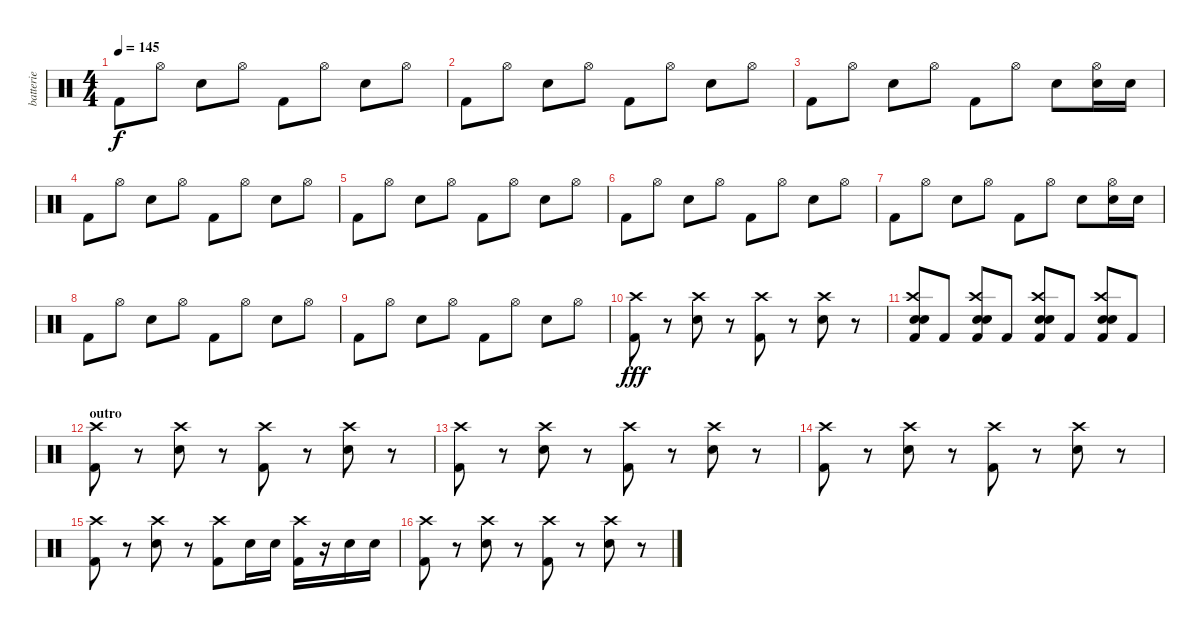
\track ("batterie" "batterie") {instrument percussion}
\staff {score}
\articulation defaults
\ts (4 4)
\tempo 145
\clef neutral
\ks c "Kick (hit) 2".8{dy f} "Hi-Hat (open)".8 "Electric Snare (hit)".8 "Hi-Hat (open)".8 "Kick (hit) 2".8 "Hi-Hat (open)".8 "Electric Snare (hit)".8 "Hi-Hat (open)".8
|
"Kick (hit) 2".8 "Hi-Hat (open)".8 "Electric Snare (hit)".8 "Hi-Hat (open)".8 "Kick (hit) 2".8 "Hi-Hat (open)".8 "Electric Snare (hit)".8 "Hi-Hat (open)".8 |
"Kick (hit) 2".8 "Hi-Hat (open)".8 "Electric Snare (hit)".8 "Hi-Hat (open)".8 "Kick (hit) 2".8 "Hi-Hat (open)".8 "Electric Snare (hit)".8 ("Hi-Hat (open)" "Electric Snare (hit)").16 "Electric Snare (hit)".16 |
"Kick (hit) 2".8 "Hi-Hat (open)".8 "Electric Snare (hit)".8 "Hi-Hat (open)".8 "Kick (hit) 2".8 "Hi-Hat (open)".8 "Electric Snare (hit)".8 "Hi-Hat (open)".8 |
"Kick (hit) 2".8 "Hi-Hat (open)".8 "Electric Snare (hit)".8 "Hi-Hat (open)".8 "Kick (hit) 2".8 "Hi-Hat (open)".8 "Electric Snare (hit)".8 "Hi-Hat (open)".8 |
"Kick (hit) 2".8 "Hi-Hat (open)".8 "Electric Snare (hit)".8 "Hi-Hat (open)".8 "Kick (hit) 2".8 "Hi-Hat (open)".8 "Electric Snare (hit)".8 "Hi-Hat (open)".8 |
"Kick (hit) 2".8 "Hi-Hat (open)".8 "Electric Snare (hit)".8 "Hi-Hat (open)".8 "Kick (hit) 2".8 "Hi-Hat (open)".8 "Electric Snare (hit)".8 ("Hi-Hat (open)" "Electric Snare (hit)").16 "Electric Snare (hit)".16 |
"Kick (hit) 2".8 "Hi-Hat (open)".8 "Electric Snare (hit)".8 "Hi-Hat (open)".8 "Kick (hit) 2".8 "Hi-Hat (open)".8 "Electric Snare (hit)".8 "Hi-Hat (open)".8 |
"Kick (hit) 2".8 "Hi-Hat (open)".8 "Electric Snare (hit)".8 "Hi-Hat (open)".8 "Kick (hit) 2".8 "Hi-Hat (open)".8 "Electric Snare (hit)".8 "Hi-Hat (open)".8 |
("Crash high (hit)" "Kick (hit) 2").8{dy fff} r.8 ("Crash high (hit)" "Electric Snare (hit)").8 r.8 ("Crash high (hit)" "Kick (hit) 2").8 r.8 ("Crash high (hit)" "Electric Snare (hit)").8 r.8 |
("Crash high (hit)" "Snare (hit) 2" "Electric Snare (hit)" "Kick (hit) 2").8 "Kick (hit) 2".8 ("Crash high (hit)" "Snare (hit) 2" "Electric Snare (hit)" "Kick (hit) 2").8 "Kick (hit) 2".8 ("Crash high (hit)" "Snare (hit) 2" "Electric Snare (hit)" "Kick (hit) 2").8 "Kick (hit) 2".8 ("Crash high (hit)" "Snare (hit) 2" "Electric Snare (hit)" "Kick (hit) 2").8 "Kick (hit) 2".8 |
\section ("" "outro")
("Crash high (hit)" "Kick (hit) 2").8 r.8 ("Crash high (hit)" "Electric Snare (hit)").8 r.8 ("Crash high (hit)" "Kick (hit) 2").8 r.8 ("Crash high (hit)" "Electric Snare (hit)").8 r.8 |
("Crash high (hit)" "Kick (hit) 2").8 r.8 ("Crash high (hit)" "Electric Snare (hit)").8 r.8 ("Crash high (hit)" "Kick (hit) 2").8 r.8 ("Crash high (hit)" "Electric Snare (hit)").8 r.8 |
("Crash high (hit)" "Kick (hit) 2").8 r.8 ("Crash high (hit)" "Electric Snare (hit)").8 r.8 ("Crash high (hit)" "Kick (hit) 2").8 r.8 ("Crash high (hit)" "Electric Snare (hit)").8 r.8 |
("Crash high (hit)" "Kick (hit) 2").8 r.8 ("Crash high (hit)" "Electric Snare (hit)").8 r.8 ("Crash high (hit)" "Kick (hit) 2").8 "Electric Snare (hit)".16 "Electric Snare (hit)".16 ("Crash high (hit)" "Kick (hit) 2").16 r.16 "Electric Snare (hit)".16 "Electric Snare (hit)".16 |
("Crash high (hit)" "Kick (hit) 2").8 r.8 ("Crash high (hit)" "Electric Snare (hit)").8 r.8 ("Crash high (hit)" "Kick (hit) 2").8 r.8 ("Crash high (hit)" "Electric Snare (hit)").8 r.8
